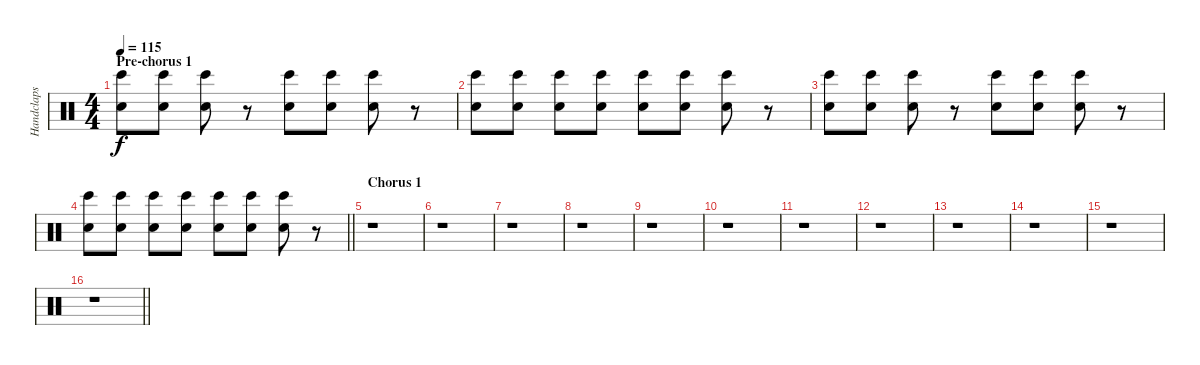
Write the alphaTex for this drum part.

\track ("Handclaps" "Handclaps") {instrument percussion}
\staff {score}
\articulation defaults
\ts (4 4)
\section ("" "Pre-chorus 1")
\tempo 115
\clef neutral
\ks c
("Bongo High (hit)" "Hand Clap (hit)").8{dy f} ("Bongo High (hit)" "Hand Clap (hit)").8 ("Bongo High (hit)" "Hand Clap (hit)").8 r.8 ("Bongo High (hit)" "Hand Clap (hit)").8 ("Bongo High (hit)" "Hand Clap (hit)").8 ("Bongo High (hit)" "Hand Clap (hit)").8 r.8 |
("Bongo High (hit)" "Hand Clap (hit)").8 ("Bongo High (hit)" "Hand Clap (hit)").8 ("Bongo High (hit)" "Hand Clap (hit)").8 ("Bongo High (hit)" "Hand Clap (hit)").8 ("Bongo High (hit)" "Hand Clap (hit)").8 ("Bongo High (hit)" "Hand Clap (hit)").8 ("Bongo High (hit)" "Hand Clap (hit)").8 r.8 |
("Bongo High (hit)" "Hand Clap (hit)").8 ("Bongo High (hit)" "Hand Clap (hit)").8 ("Bongo High (hit)" "Hand Clap (hit)").8 r.8 ("Bongo High (hit)" "Hand Clap (hit)").8 ("Bongo High (hit)" "Hand Clap (hit)").8 ("Bongo High (hit)" "Hand Clap (hit)").8 r.8 |
\barLineRight lightlight
("Bongo High (hit)" "Hand Clap (hit)").8 ("Bongo High (hit)" "Hand Clap (hit)").8 ("Bongo High (hit)" "Hand Clap (hit)").8 ("Bongo High (hit)" "Hand Clap (hit)").8 ("Bongo High (hit)" "Hand Clap (hit)").8 ("Bongo High (hit)" "Hand Clap (hit)").8 ("Bongo High (hit)" "Hand Clap (hit)").8 r.8 |
\section ("" "Chorus 1")
r.1 |
r.1 |
r.1 |
r.1 |
r.1 |
r.1 |
r.1 |
r.1 |
r.1 |
r.1 |
r.1 |
\barLineRight lightlight
r.1
